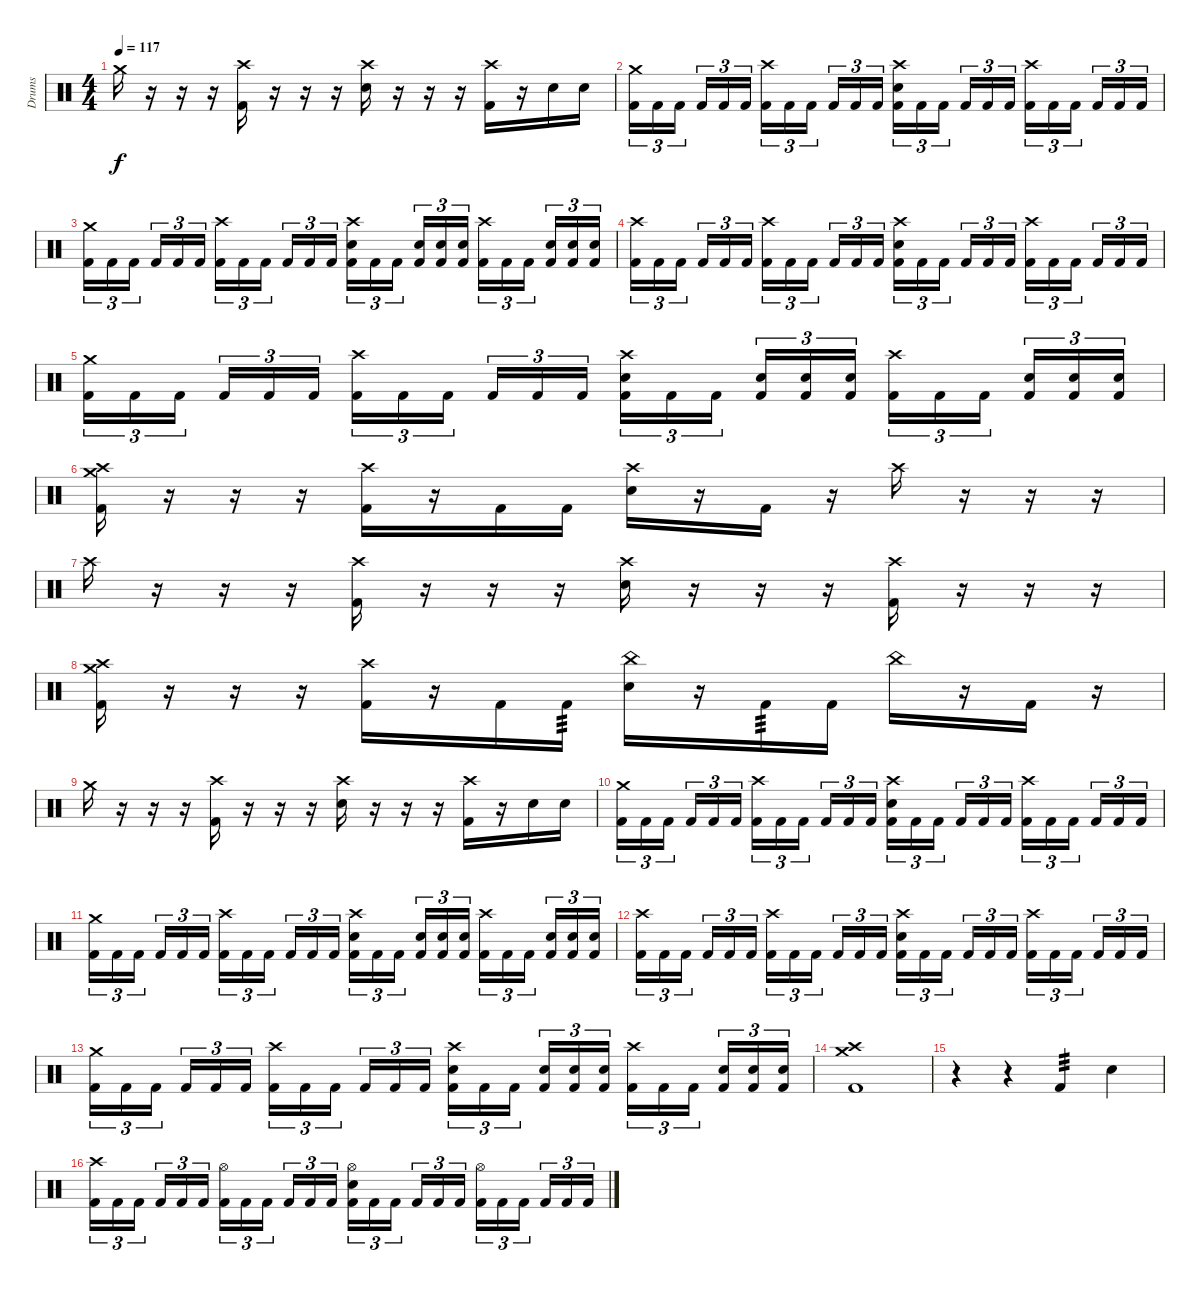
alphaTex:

\track ("Drums" "Drums") {instrument percussion}
\staff {score}
\articulation defaults
\ts (4 4)
\tempo 117
\clef neutral
\ks c "Crash medium (hit)".16{dy f}
r.16 r.16 r.16 ("Crash high (hit)" "Kick (hit) 2").16 r.16 r.16 r.16 ("Crash high (hit)" "Electric Snare (hit)").16 r.16 r.16 r.16 ("Crash high (hit)" "Kick (hit) 2").16 r.16 "Electric Snare (hit)".16 "Electric Snare (hit)".16 |
("Crash medium (hit)" "Kick (hit) 2").16{tu (3 2)} "Kick (hit) 2".16{tu (3 2)} "Kick (hit) 2".16{tu (3 2) beam splitsecondary} "Kick (hit) 2".16{tu (3 2)} "Kick (hit) 2".16{tu (3 2)} "Kick (hit) 2".16{tu (3 2)} ("Crash high (hit)" "Kick (hit) 2").16{tu (3 2)} "Kick (hit) 2".16{tu (3 2)} "Kick (hit) 2".16{tu (3 2) beam splitsecondary} "Kick (hit) 2".16{tu (3 2)} "Kick (hit) 2".16{tu (3 2)} "Kick (hit) 2".16{tu (3 2)} ("Crash high (hit)" "Electric Snare (hit)" "Kick (hit) 2").16{tu (3 2)} "Kick (hit) 2".16{tu (3 2)} "Kick (hit) 2".16{tu (3 2) beam splitsecondary} "Kick (hit) 2".16{tu (3 2)} "Kick (hit) 2".16{tu (3 2)} "Kick (hit) 2".16{tu (3 2)} ("Crash high (hit)" "Kick (hit) 2").16{tu (3 2)} "Kick (hit) 2".16{tu (3 2)} "Kick (hit) 2".16{tu (3 2) beam splitsecondary} "Kick (hit) 2".16{tu (3 2)} "Kick (hit) 2".16{tu (3 2)} "Kick (hit) 2".16{tu (3 2)} |
("Crash medium (hit)" "Kick (hit) 2").16{tu (3 2)} "Kick (hit) 2".16{tu (3 2)} "Kick (hit) 2".16{tu (3 2) beam splitsecondary} "Kick (hit) 2".16{tu (3 2)} "Kick (hit) 2".16{tu (3 2)} "Kick (hit) 2".16{tu (3 2)} ("Crash high (hit)" "Kick (hit) 2").16{tu (3 2)} "Kick (hit) 2".16{tu (3 2)} "Kick (hit) 2".16{tu (3 2) beam splitsecondary} "Kick (hit) 2".16{tu (3 2)} "Kick (hit) 2".16{tu (3 2)} "Kick (hit) 2".16{tu (3 2)} ("Crash high (hit)" "Electric Snare (hit)" "Kick (hit) 2").16{tu (3 2)} "Kick (hit) 2".16{tu (3 2)} "Kick (hit) 2".16{tu (3 2) beam splitsecondary} ("Electric Snare (hit)" "Kick (hit) 2").16{tu (3 2)} ("Electric Snare (hit)" "Kick (hit) 2").16{tu (3 2)} ("Electric Snare (hit)" "Kick (hit) 2").16{tu (3 2)} ("Crash high (hit)" "Kick (hit) 2").16{tu (3 2)} "Kick (hit) 2".16{tu (3 2)} "Kick (hit) 2".16{tu (3 2) beam splitsecondary} ("Electric Snare (hit)" "Kick (hit) 2").16{tu (3 2)} ("Electric Snare (hit)" "Kick (hit) 2").16{tu (3 2)} ("Electric Snare (hit)" "Kick (hit) 2").16{tu (3 2)} |
("Crash high (hit)" "Kick (hit) 2").16{tu (3 2)} "Kick (hit) 2".16{tu (3 2)} "Kick (hit) 2".16{tu (3 2) beam splitsecondary} "Kick (hit) 2".16{tu (3 2)} "Kick (hit) 2".16{tu (3 2)} "Kick (hit) 2".16{tu (3 2)} ("Crash high (hit)" "Kick (hit) 2").16{tu (3 2)} "Kick (hit) 2".16{tu (3 2)} "Kick (hit) 2".16{tu (3 2) beam splitsecondary} "Kick (hit) 2".16{tu (3 2)} "Kick (hit) 2".16{tu (3 2)} "Kick (hit) 2".16{tu (3 2)} ("Crash high (hit)" "Electric Snare (hit)" "Kick (hit) 2").16{tu (3 2)} "Kick (hit) 2".16{tu (3 2)} "Kick (hit) 2".16{tu (3 2) beam splitsecondary} "Kick (hit) 2".16{tu (3 2)} "Kick (hit) 2".16{tu (3 2)} "Kick (hit) 2".16{tu (3 2)} ("Crash high (hit)" "Kick (hit) 2").16{tu (3 2)} "Kick (hit) 2".16{tu (3 2)} "Kick (hit) 2".16{tu (3 2) beam splitsecondary} "Kick (hit) 2".16{tu (3 2)} "Kick (hit) 2".16{tu (3 2)} "Kick (hit) 2".16{tu (3 2)} |
("Crash medium (hit)" "Kick (hit) 2").16{tu (3 2)} "Kick (hit) 2".16{tu (3 2)} "Kick (hit) 2".16{tu (3 2) beam splitsecondary} "Kick (hit) 2".16{tu (3 2)} "Kick (hit) 2".16{tu (3 2)} "Kick (hit) 2".16{tu (3 2)} ("Crash high (hit)" "Kick (hit) 2").16{tu (3 2)} "Kick (hit) 2".16{tu (3 2)} "Kick (hit) 2".16{tu (3 2) beam splitsecondary} "Kick (hit) 2".16{tu (3 2)} "Kick (hit) 2".16{tu (3 2)} "Kick (hit) 2".16{tu (3 2)} ("Crash high (hit)" "Electric Snare (hit)" "Kick (hit) 2").16{tu (3 2)} "Kick (hit) 2".16{tu (3 2)} "Kick (hit) 2".16{tu (3 2) beam splitsecondary} ("Electric Snare (hit)" "Kick (hit) 2").16{tu (3 2)} ("Electric Snare (hit)" "Kick (hit) 2").16{tu (3 2)} ("Electric Snare (hit)" "Kick (hit) 2").16{tu (3 2)} ("Crash high (hit)" "Kick (hit) 2").16{tu (3 2)} "Kick (hit) 2".16{tu (3 2)} "Kick (hit) 2".16{tu (3 2) beam splitsecondary} ("Electric Snare (hit)" "Kick (hit) 2").16{tu (3 2)} ("Electric Snare (hit)" "Kick (hit) 2").16{tu (3 2)} ("Electric Snare (hit)" "Kick (hit) 2").16{tu (3 2)} |
("Crash high (hit)" "Crash medium (hit)" "Kick (hit) 2").16 r.16 r.16 r.16 ("Crash high (hit)" "Kick (hit) 2").16 r.16 "Kick (hit) 2".16 "Kick (hit) 2".16 ("Crash high (hit)" "Electric Snare (hit)").16 r.16 "Kick (hit) 2".16 r.16 "Crash high (hit)".16 r.16 r.16 r.16 |
"Crash high (hit)".16 r.16 r.16 r.16 ("Crash high (hit)" "Kick (hit) 2").16 r.16 r.16 r.16 ("Crash high (hit)" "Electric Snare (hit)").16 r.16 r.16 r.16 ("Crash high (hit)" "Kick (hit) 2").16 r.16 r.16 r.16 |
("Crash high (hit)" "Crash medium (hit)" "Kick (hit) 2").16 r.16 r.16 r.16 ("Crash high (hit)" "Kick (hit) 2").16 r.16 "Kick (hit) 2".16 "Kick (hit) 2".16{tp 3} ("China (hit)" "Electric Snare (hit)").16 r.16 "Kick (hit) 2".16{tp 3} "Kick (hit) 2".16 "China (hit)".16 r.16 "Kick (hit) 2".16 r.16 |
"Crash medium (hit)".16 r.16 r.16 r.16 ("Crash high (hit)" "Kick (hit) 2").16 r.16 r.16 r.16 ("Crash high (hit)" "Electric Snare (hit)").16 r.16 r.16 r.16 ("Crash high (hit)" "Kick (hit) 2").16 r.16 "Electric Snare (hit)".16 "Electric Snare (hit)".16 |
("Crash medium (hit)" "Kick (hit) 2").16{tu (3 2)} "Kick (hit) 2".16{tu (3 2)} "Kick (hit) 2".16{tu (3 2) beam splitsecondary} "Kick (hit) 2".16{tu (3 2)} "Kick (hit) 2".16{tu (3 2)} "Kick (hit) 2".16{tu (3 2)} ("Crash high (hit)" "Kick (hit) 2").16{tu (3 2)} "Kick (hit) 2".16{tu (3 2)} "Kick (hit) 2".16{tu (3 2) beam splitsecondary} "Kick (hit) 2".16{tu (3 2)} "Kick (hit) 2".16{tu (3 2)} "Kick (hit) 2".16{tu (3 2)} ("Crash high (hit)" "Electric Snare (hit)" "Kick (hit) 2").16{tu (3 2)} "Kick (hit) 2".16{tu (3 2)} "Kick (hit) 2".16{tu (3 2) beam splitsecondary} "Kick (hit) 2".16{tu (3 2)} "Kick (hit) 2".16{tu (3 2)} "Kick (hit) 2".16{tu (3 2)} ("Crash high (hit)" "Kick (hit) 2").16{tu (3 2)} "Kick (hit) 2".16{tu (3 2)} "Kick (hit) 2".16{tu (3 2) beam splitsecondary} "Kick (hit) 2".16{tu (3 2)} "Kick (hit) 2".16{tu (3 2)} "Kick (hit) 2".16{tu (3 2)} |
("Crash medium (hit)" "Kick (hit) 2").16{tu (3 2)} "Kick (hit) 2".16{tu (3 2)} "Kick (hit) 2".16{tu (3 2) beam splitsecondary} "Kick (hit) 2".16{tu (3 2)} "Kick (hit) 2".16{tu (3 2)} "Kick (hit) 2".16{tu (3 2)} ("Crash high (hit)" "Kick (hit) 2").16{tu (3 2)} "Kick (hit) 2".16{tu (3 2)} "Kick (hit) 2".16{tu (3 2) beam splitsecondary} "Kick (hit) 2".16{tu (3 2)} "Kick (hit) 2".16{tu (3 2)} "Kick (hit) 2".16{tu (3 2)} ("Crash high (hit)" "Electric Snare (hit)" "Kick (hit) 2").16{tu (3 2)} "Kick (hit) 2".16{tu (3 2)} "Kick (hit) 2".16{tu (3 2) beam splitsecondary} ("Electric Snare (hit)" "Kick (hit) 2").16{tu (3 2)} ("Electric Snare (hit)" "Kick (hit) 2").16{tu (3 2)} ("Electric Snare (hit)" "Kick (hit) 2").16{tu (3 2)} ("Crash high (hit)" "Kick (hit) 2").16{tu (3 2)} "Kick (hit) 2".16{tu (3 2)} "Kick (hit) 2".16{tu (3 2) beam splitsecondary} ("Electric Snare (hit)" "Kick (hit) 2").16{tu (3 2)} ("Electric Snare (hit)" "Kick (hit) 2").16{tu (3 2)} ("Electric Snare (hit)" "Kick (hit) 2").16{tu (3 2)} |
("Crash high (hit)" "Kick (hit) 2").16{tu (3 2)} "Kick (hit) 2".16{tu (3 2)} "Kick (hit) 2".16{tu (3 2) beam splitsecondary} "Kick (hit) 2".16{tu (3 2)} "Kick (hit) 2".16{tu (3 2)} "Kick (hit) 2".16{tu (3 2)} ("Crash high (hit)" "Kick (hit) 2").16{tu (3 2)} "Kick (hit) 2".16{tu (3 2)} "Kick (hit) 2".16{tu (3 2) beam splitsecondary} "Kick (hit) 2".16{tu (3 2)} "Kick (hit) 2".16{tu (3 2)} "Kick (hit) 2".16{tu (3 2)} ("Crash high (hit)" "Electric Snare (hit)" "Kick (hit) 2").16{tu (3 2)} "Kick (hit) 2".16{tu (3 2)} "Kick (hit) 2".16{tu (3 2) beam splitsecondary} "Kick (hit) 2".16{tu (3 2)} "Kick (hit) 2".16{tu (3 2)} "Kick (hit) 2".16{tu (3 2)} ("Crash high (hit)" "Kick (hit) 2").16{tu (3 2)} "Kick (hit) 2".16{tu (3 2)} "Kick (hit) 2".16{tu (3 2) beam splitsecondary} "Kick (hit) 2".16{tu (3 2)} "Kick (hit) 2".16{tu (3 2)} "Kick (hit) 2".16{tu (3 2)} |
("Crash medium (hit)" "Kick (hit) 2").16{tu (3 2)} "Kick (hit) 2".16{tu (3 2)} "Kick (hit) 2".16{tu (3 2) beam splitsecondary} "Kick (hit) 2".16{tu (3 2)} "Kick (hit) 2".16{tu (3 2)} "Kick (hit) 2".16{tu (3 2)} ("Crash high (hit)" "Kick (hit) 2").16{tu (3 2)} "Kick (hit) 2".16{tu (3 2)} "Kick (hit) 2".16{tu (3 2) beam splitsecondary} "Kick (hit) 2".16{tu (3 2)} "Kick (hit) 2".16{tu (3 2)} "Kick (hit) 2".16{tu (3 2)} ("Crash high (hit)" "Electric Snare (hit)" "Kick (hit) 2").16{tu (3 2)} "Kick (hit) 2".16{tu (3 2)} "Kick (hit) 2".16{tu (3 2) beam splitsecondary} ("Electric Snare (hit)" "Kick (hit) 2").16{tu (3 2)} ("Electric Snare (hit)" "Kick (hit) 2").16{tu (3 2)} ("Electric Snare (hit)" "Kick (hit) 2").16{tu (3 2)} ("Crash high (hit)" "Kick (hit) 2").16{tu (3 2)} "Kick (hit) 2".16{tu (3 2)} "Kick (hit) 2".16{tu (3 2) beam splitsecondary} ("Electric Snare (hit)" "Kick (hit) 2").16{tu (3 2)} ("Electric Snare (hit)" "Kick (hit) 2").16{tu (3 2)} ("Electric Snare (hit)" "Kick (hit) 2").16{tu (3 2)} |
("Crash high (hit)" "Crash medium (hit)" "Kick (hit) 2").1 |
r.4 r.4 "Kick (hit) 2".4{tp 3} "Electric Snare (hit)".4 |
("Crash high (hit)" "Kick (hit) 2").16{tu (3 2)} "Kick (hit) 2".16{tu (3 2)} "Kick (hit) 2".16{tu (3 2) beam splitsecondary} "Kick (hit) 2".16{tu (3 2)} "Kick (hit) 2".16{tu (3 2)} "Kick (hit) 2".16{tu (3 2)} ("Hi-Hat (open)" "Kick (hit) 2").16{tu (3 2)} "Kick (hit) 2".16{tu (3 2)} "Kick (hit) 2".16{tu (3 2) beam splitsecondary} "Kick (hit) 2".16{tu (3 2)} "Kick (hit) 2".16{tu (3 2)} "Kick (hit) 2".16{tu (3 2)} ("Hi-Hat (open)" "Electric Snare (hit)" "Kick (hit) 2").16{tu (3 2)} "Kick (hit) 2".16{tu (3 2)} "Kick (hit) 2".16{tu (3 2) beam splitsecondary} "Kick (hit) 2".16{tu (3 2)} "Kick (hit) 2".16{tu (3 2)} "Kick (hit) 2".16{tu (3 2)} ("Hi-Hat (open)" "Kick (hit) 2").16{tu (3 2)} "Kick (hit) 2".16{tu (3 2)} "Kick (hit) 2".16{tu (3 2) beam splitsecondary} "Kick (hit) 2".16{tu (3 2)} "Kick (hit) 2".16{tu (3 2)} "Kick (hit) 2".16{tu (3 2)}
